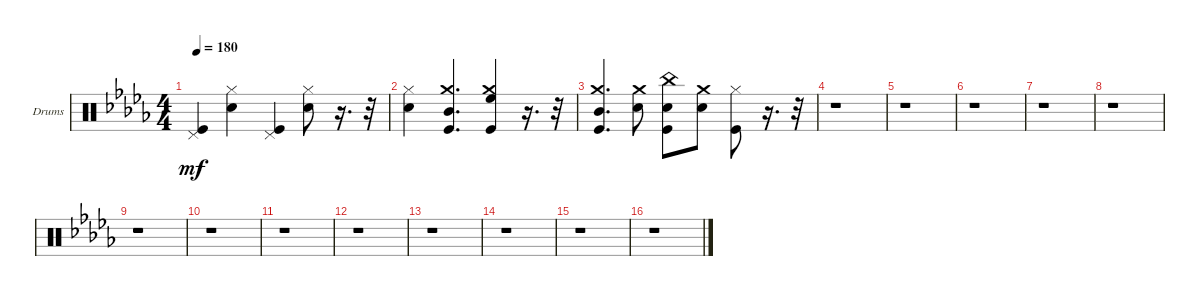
\bracketExtendMode groupsimilarinstruments
\firstSystemTrackNameOrientation horizontal
\otherSystemsTrackNameOrientation horizontal
\track ("Drums" "Drums") {instrument percussion}
\staff {score}
\articulation defaults
\ts (4 4)
\tempo 180
\clef neutral
\ks bbminor
("Kick (hit)" "Pedal Hi-Hat (hit)").4{dy mf} ("Snare (hit) 2" "Hi-Hat (closed)").4 ("Kick (hit)" "Pedal Hi-Hat (hit)").4 ("Snare (hit) 2" "Hi-Hat (closed)").8 r.16{d} r.32 |
("Snare (hit) 2" "Hi-Hat (closed)").4 ("Crash medium (hit)" "Kick (hit)" "Mid Tom (hit)").4{d} ("Crash medium (hit)" "High Floor Tom (hit)" "Kick (hit)").4 r.16{d} r.32 |
("Kick (hit)" "Crash medium (hit)" "Mid Tom (hit)").4{d} ("Crash medium (hit)" "Snare (hit) 2").8 ("Kick (hit)" "China (hit)" "Snare (hit) 2").8 ("Snare (hit) 2" "Crash medium (hit)").8 ("Kick (hit)" "Hi-Hat (closed)").8 r.16{d} r.32 |
r.1 |
r.1 |
r.1 |
r.1 |
r.1 |
r.1 |
r.1 |
r.1 |
r.1 |
r.1 |
r.1 |
r.1 |
r.1
